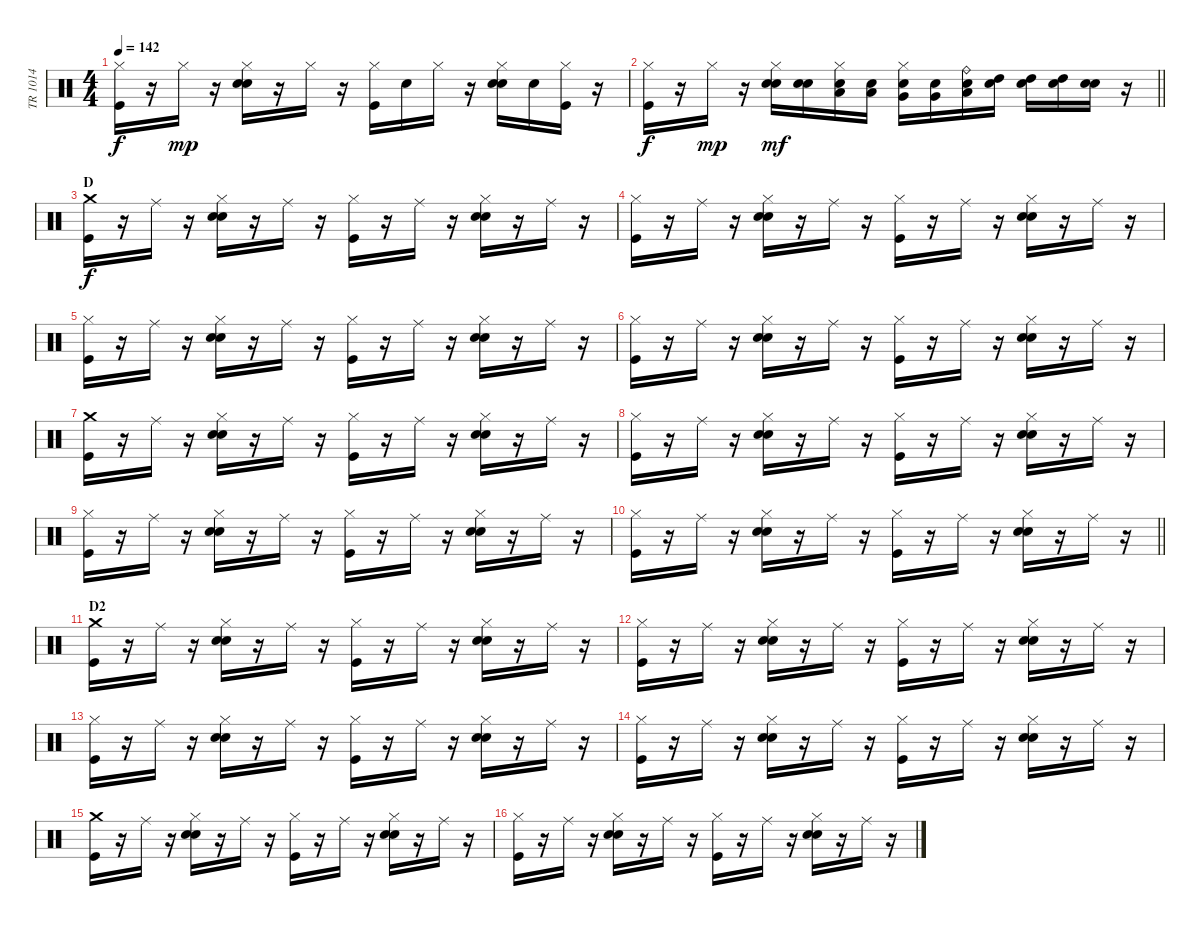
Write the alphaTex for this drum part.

\track ("TR 1014" "TR 1014") {instrument percussion}
\staff {score}
\articulation defaults
\ts (4 4)
\tempo 142
\clef neutral
\ks c
("Hi-Hat (closed)" "Kick (hit)").16{dy f} r.16 "Hi-Hat (closed)".16{dy mp} r.16 ("Hi-Hat (closed)" "Electric Snare (hit)" "Snare (hit) 2").16 r.16 "Hi-Hat (closed)".16 r.16 ("Hi-Hat (closed)" "Kick (hit)").16 "Snare (hit) 2".16 "Hi-Hat (closed)".16 r.16 ("Hi-Hat (closed)" "Electric Snare (hit)" "Snare (hit) 2").16 "Snare (hit) 2".16 ("Hi-Hat (closed)" "Kick (hit)").16 r.16 |
\barLineRight lightlight
("Hi-Hat (closed)" "Kick (hit)").16{dy f} r.16 "Hi-Hat (closed)".16{dy mp} r.16 ("Hi-Hat (closed)" "Electric Snare (hit)" "Snare (hit) 2").16{dy mf} ("Electric Snare (hit)" "Snare (hit) 2").16 ("Hi-Hat (closed)" "Electric Snare (hit)" "Low Tom (hit)").16 ("Electric Snare (hit)" "Low Tom (hit)").16 ("Hi-Hat (closed)" "Electric Snare (hit)" "Very Low Tom (hit)").16 ("Electric Snare (hit)" "Very Low Tom (hit)").16 ("Ride (bell)" "Electric Snare (hit)" "Low Tom (hit)").16 ("Electric Snare (hit)" "High Tom (hit)").16 ("Snare (hit) 2" "High Tom (hit)").16 ("Snare (hit) 2" "High Tom (hit)").16 ("Snare (hit) 2" "Electric Snare (hit)").16 r.16 |
\section ("" "D")
("Crash medium (hit)" "Kick (hit)").16{dy f} r.16 "Ride (middle)".16 r.16 ("Hi-Hat (closed)" "Electric Snare (hit)" "Snare (hit) 2").16 r.16 "Ride (middle)".16 r.16 ("Hi-Hat (closed)" "Kick (hit)").16 r.16 "Ride (middle)".16 r.16 ("Hi-Hat (closed)" "Electric Snare (hit)" "Snare (hit) 2").16 r.16 "Ride (middle)".16 r.16 |
("Hi-Hat (closed)" "Kick (hit)").16 r.16 "Ride (middle)".16 r.16 ("Hi-Hat (closed)" "Electric Snare (hit)" "Snare (hit) 2").16 r.16 "Ride (middle)".16 r.16 ("Hi-Hat (closed)" "Kick (hit)").16 r.16 "Ride (middle)".16 r.16 ("Hi-Hat (closed)" "Electric Snare (hit)" "Snare (hit) 2").16 r.16 "Ride (middle)".16 r.16 |
("Hi-Hat (closed)" "Kick (hit)").16 r.16 "Ride (middle)".16 r.16 ("Hi-Hat (closed)" "Electric Snare (hit)" "Snare (hit) 2").16 r.16 "Ride (middle)".16 r.16 ("Hi-Hat (closed)" "Kick (hit)").16 r.16 "Ride (middle)".16 r.16 ("Hi-Hat (closed)" "Electric Snare (hit)" "Snare (hit) 2").16 r.16 "Ride (middle)".16 r.16 |
("Hi-Hat (closed)" "Kick (hit)").16 r.16 "Ride (middle)".16 r.16 ("Hi-Hat (closed)" "Electric Snare (hit)" "Snare (hit) 2").16 r.16 "Ride (middle)".16 r.16 ("Hi-Hat (closed)" "Kick (hit)").16 r.16 "Ride (middle)".16 r.16 ("Hi-Hat (closed)" "Electric Snare (hit)" "Snare (hit) 2").16 r.16 "Ride (middle)".16 r.16 |
("Crash medium (hit)" "Kick (hit)").16 r.16 "Ride (middle)".16 r.16 ("Hi-Hat (closed)" "Electric Snare (hit)" "Snare (hit) 2").16 r.16 "Ride (middle)".16 r.16 ("Hi-Hat (closed)" "Kick (hit)").16 r.16 "Ride (middle)".16 r.16 ("Hi-Hat (closed)" "Electric Snare (hit)" "Snare (hit) 2").16 r.16 "Ride (middle)".16 r.16 |
("Hi-Hat (closed)" "Kick (hit)").16 r.16 "Ride (middle)".16 r.16 ("Hi-Hat (closed)" "Electric Snare (hit)" "Snare (hit) 2").16 r.16 "Ride (middle)".16 r.16 ("Hi-Hat (closed)" "Kick (hit)").16 r.16 "Ride (middle)".16 r.16 ("Hi-Hat (closed)" "Electric Snare (hit)" "Snare (hit) 2").16 r.16 "Ride (middle)".16 r.16 |
("Hi-Hat (closed)" "Kick (hit)").16 r.16 "Ride (middle)".16 r.16 ("Hi-Hat (closed)" "Electric Snare (hit)" "Snare (hit) 2").16 r.16 "Ride (middle)".16 r.16 ("Hi-Hat (closed)" "Kick (hit)").16 r.16 "Ride (middle)".16 r.16 ("Hi-Hat (closed)" "Electric Snare (hit)" "Snare (hit) 2").16 r.16 "Ride (middle)".16 r.16 |
\barLineRight lightlight
("Hi-Hat (closed)" "Kick (hit)").16 r.16 "Ride (middle)".16 r.16 ("Hi-Hat (closed)" "Electric Snare (hit)" "Snare (hit) 2").16 r.16 "Ride (middle)".16 r.16 ("Hi-Hat (closed)" "Kick (hit)").16 r.16 "Ride (middle)".16 r.16 ("Hi-Hat (closed)" "Electric Snare (hit)" "Snare (hit) 2").16 r.16 "Ride (middle)".16 r.16 |
\section ("" "D2")
("Crash medium (hit)" "Kick (hit)").16 r.16 "Ride (middle)".16 r.16 ("Hi-Hat (closed)" "Electric Snare (hit)" "Snare (hit) 2").16 r.16 "Ride (middle)".16 r.16 ("Hi-Hat (closed)" "Kick (hit)").16 r.16 "Ride (middle)".16 r.16 ("Hi-Hat (closed)" "Electric Snare (hit)" "Snare (hit) 2").16 r.16 "Ride (middle)".16 r.16 |
("Hi-Hat (closed)" "Kick (hit)").16 r.16 "Ride (middle)".16 r.16 ("Hi-Hat (closed)" "Electric Snare (hit)" "Snare (hit) 2").16 r.16 "Ride (middle)".16 r.16 ("Hi-Hat (closed)" "Kick (hit)").16 r.16 "Ride (middle)".16 r.16 ("Hi-Hat (closed)" "Electric Snare (hit)" "Snare (hit) 2").16 r.16 "Ride (middle)".16 r.16 |
("Hi-Hat (closed)" "Kick (hit)").16 r.16 "Ride (middle)".16 r.16 ("Hi-Hat (closed)" "Electric Snare (hit)" "Snare (hit) 2").16 r.16 "Ride (middle)".16 r.16 ("Hi-Hat (closed)" "Kick (hit)").16 r.16 "Ride (middle)".16 r.16 ("Hi-Hat (closed)" "Electric Snare (hit)" "Snare (hit) 2").16 r.16 "Ride (middle)".16 r.16 |
("Hi-Hat (closed)" "Kick (hit)").16 r.16 "Ride (middle)".16 r.16 ("Hi-Hat (closed)" "Electric Snare (hit)" "Snare (hit) 2").16 r.16 "Ride (middle)".16 r.16 ("Hi-Hat (closed)" "Kick (hit)").16 r.16 "Ride (middle)".16 r.16 ("Hi-Hat (closed)" "Electric Snare (hit)" "Snare (hit) 2").16 r.16 "Ride (middle)".16 r.16 |
("Crash medium (hit)" "Kick (hit)").16 r.16 "Ride (middle)".16 r.16 ("Hi-Hat (closed)" "Electric Snare (hit)" "Snare (hit) 2").16 r.16 "Ride (middle)".16 r.16 ("Hi-Hat (closed)" "Kick (hit)").16 r.16 "Ride (middle)".16 r.16 ("Hi-Hat (closed)" "Electric Snare (hit)" "Snare (hit) 2").16 r.16 "Ride (middle)".16 r.16 |
("Hi-Hat (closed)" "Kick (hit)").16 r.16 "Ride (middle)".16 r.16 ("Hi-Hat (closed)" "Electric Snare (hit)" "Snare (hit) 2").16 r.16 "Ride (middle)".16 r.16 ("Hi-Hat (closed)" "Kick (hit)").16 r.16 "Ride (middle)".16 r.16 ("Hi-Hat (closed)" "Electric Snare (hit)" "Snare (hit) 2").16 r.16 "Ride (middle)".16 r.16
